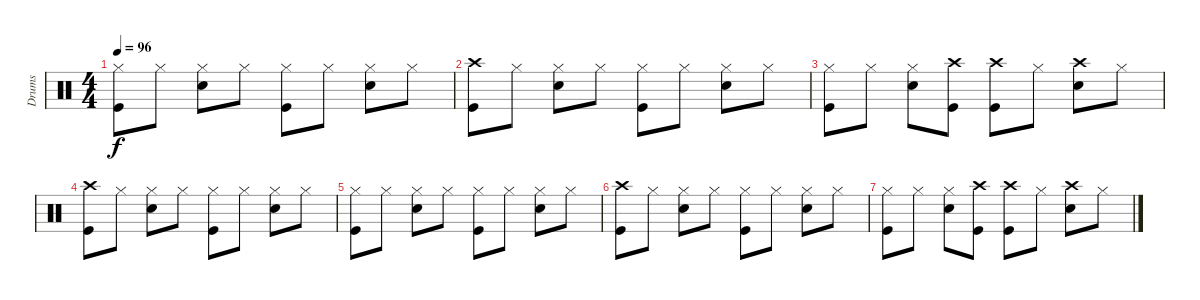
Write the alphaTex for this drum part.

\track ("Drums" "Drums") {instrument percussion}
\staff {score}
\articulation defaults
\ts (4 4)
\tempo 96
\clef neutral
\ks c
("Hi-Hat (closed)" "Kick (hit)").8{dy f} "Hi-Hat (closed)".8 ("Hi-Hat (closed)" "Electric Snare (hit)").8 "Hi-Hat (closed)".8 ("Hi-Hat (closed)" "Kick (hit)").8 "Hi-Hat (closed)".8 ("Hi-Hat (closed)" "Electric Snare (hit)").8 "Hi-Hat (closed)".8 |
("Crash high (hit)" "Kick (hit)").8 "Hi-Hat (closed)".8 ("Hi-Hat (closed)" "Electric Snare (hit)").8 "Hi-Hat (closed)".8 ("Hi-Hat (closed)" "Kick (hit)").8 "Hi-Hat (closed)".8 ("Hi-Hat (closed)" "Electric Snare (hit)").8 "Hi-Hat (closed)".8 |
("Hi-Hat (closed)" "Kick (hit)").8 "Hi-Hat (closed)".8 ("Hi-Hat (closed)" "Electric Snare (hit)").8 ("Crash high (hit)" "Kick (hit)").8 ("Crash high (hit)" "Kick (hit)").8 "Hi-Hat (closed)".8 ("Crash high (hit)" "Electric Snare (hit)").8 "Hi-Hat (closed)".8 |
("Crash high (hit)" "Kick (hit)").8 "Hi-Hat (closed)".8 ("Hi-Hat (closed)" "Electric Snare (hit)").8 "Hi-Hat (closed)".8 ("Hi-Hat (closed)" "Kick (hit)").8 "Hi-Hat (closed)".8 ("Hi-Hat (closed)" "Electric Snare (hit)").8 "Hi-Hat (closed)".8 |
("Hi-Hat (closed)" "Kick (hit)").8 "Hi-Hat (closed)".8 ("Hi-Hat (closed)" "Electric Snare (hit)").8 "Hi-Hat (closed)".8 ("Hi-Hat (closed)" "Kick (hit)").8 "Hi-Hat (closed)".8 ("Hi-Hat (closed)" "Electric Snare (hit)").8 "Hi-Hat (closed)".8 |
("Crash high (hit)" "Kick (hit)").8 "Hi-Hat (closed)".8 ("Hi-Hat (closed)" "Electric Snare (hit)").8 "Hi-Hat (closed)".8 ("Hi-Hat (closed)" "Kick (hit)").8 "Hi-Hat (closed)".8 ("Hi-Hat (closed)" "Electric Snare (hit)").8 "Hi-Hat (closed)".8 |
("Hi-Hat (closed)" "Kick (hit)").8 "Hi-Hat (closed)".8 ("Hi-Hat (closed)" "Electric Snare (hit)").8 ("Crash high (hit)" "Kick (hit)").8 ("Crash high (hit)" "Kick (hit)").8 "Hi-Hat (closed)".8 ("Crash high (hit)" "Electric Snare (hit)").8 "Hi-Hat (closed)".8
